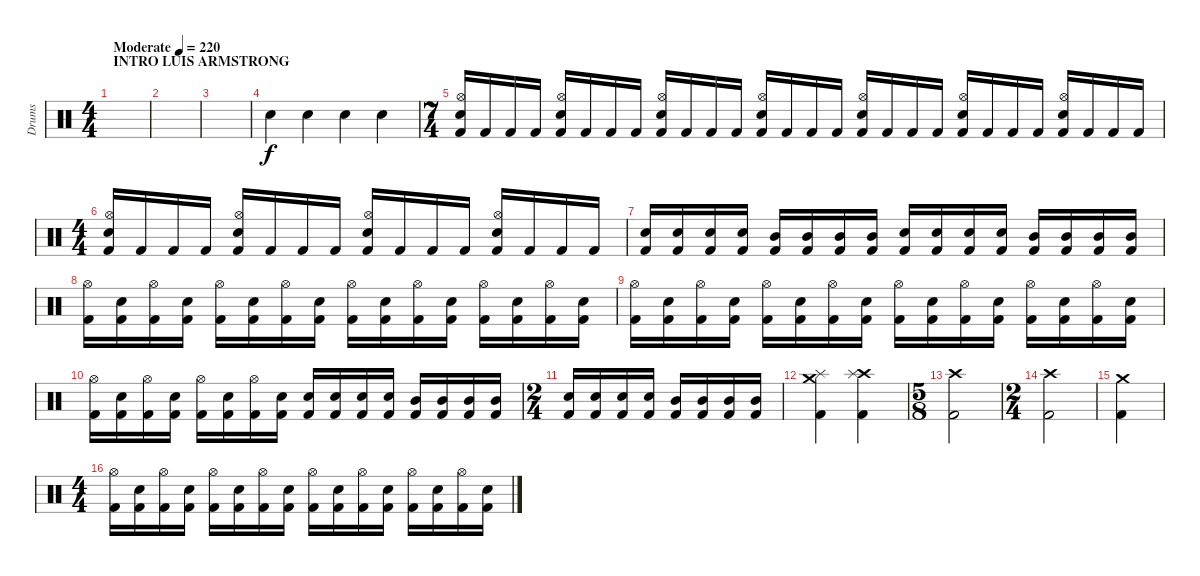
\track ("Drums" "Drums") {instrument percussion}
\staff {score}
\articulation defaults
\ts (4 4)
\section ("" "INTRO LUIS ARMSTRONG")
\tempo (220 "Moderate")
\clef neutral
\ks c
|
|
|
"Electric Snare (hit)".4 "Electric Snare (hit)".4 "Electric Snare (hit)".4 "Electric Snare (hit)".4 |
\ts (7 4)
("Hi-Hat (open)" "Electric Snare (hit)" "Kick (hit) 2").16 "Kick (hit) 2".16 "Kick (hit) 2".16 "Kick (hit) 2".16 ("Hi-Hat (open)" "Electric Snare (hit)" "Kick (hit) 2").16 "Kick (hit) 2".16 "Kick (hit) 2".16 "Kick (hit) 2".16 ("Hi-Hat (open)" "Electric Snare (hit)" "Kick (hit) 2").16 "Kick (hit) 2".16 "Kick (hit) 2".16 "Kick (hit) 2".16 ("Hi-Hat (open)" "Electric Snare (hit)" "Kick (hit) 2").16 "Kick (hit) 2".16 "Kick (hit) 2".16 "Kick (hit) 2".16 ("Hi-Hat (open)" "Electric Snare (hit)" "Kick (hit) 2").16 "Kick (hit) 2".16 "Kick (hit) 2".16 "Kick (hit) 2".16 ("Hi-Hat (open)" "Electric Snare (hit)" "Kick (hit) 2").16 "Kick (hit) 2".16 "Kick (hit) 2".16 "Kick (hit) 2".16 ("Hi-Hat (open)" "Electric Snare (hit)" "Kick (hit) 2").16 "Kick (hit) 2".16 "Kick (hit) 2".16 "Kick (hit) 2".16 |
\ts (4 4)
("Hi-Hat (open)" "Electric Snare (hit)" "Kick (hit) 2").16 "Kick (hit) 2".16 "Kick (hit) 2".16 "Kick (hit) 2".16 ("Hi-Hat (open)" "Electric Snare (hit)" "Kick (hit) 2").16 "Kick (hit) 2".16 "Kick (hit) 2".16 "Kick (hit) 2".16 ("Hi-Hat (open)" "Electric Snare (hit)" "Kick (hit) 2").16 "Kick (hit) 2".16 "Kick (hit) 2".16 "Kick (hit) 2".16 ("Hi-Hat (open)" "Electric Snare (hit)" "Kick (hit) 2").16 "Kick (hit) 2".16 "Kick (hit) 2".16 "Kick (hit) 2".16 |
("Electric Snare (hit)" "Kick (hit) 2").16 ("Electric Snare (hit)" "Kick (hit) 2").16 ("Electric Snare (hit)" "Kick (hit) 2").16 ("Electric Snare (hit)" "Kick (hit) 2").16 ("Mid Tom (hit)" "Kick (hit) 2").16 ("Mid Tom (hit)" "Kick (hit) 2").16 ("Mid Tom (hit)" "Kick (hit) 2").16 ("Mid Tom (hit)" "Kick (hit) 2").16 ("Electric Snare (hit)" "Kick (hit) 2").16 ("Electric Snare (hit)" "Kick (hit) 2").16 ("Electric Snare (hit)" "Kick (hit) 2").16 ("Electric Snare (hit)" "Kick (hit) 2").16 ("Mid Tom (hit)" "Kick (hit) 2").16 ("Mid Tom (hit)" "Kick (hit) 2").16 ("Mid Tom (hit)" "Kick (hit) 2").16 ("Mid Tom (hit)" "Kick (hit) 2").16 |
("Hi-Hat (open)" "Kick (hit) 2").16 ("Electric Snare (hit)" "Kick (hit) 2").16 ("Hi-Hat (open)" "Kick (hit) 2").16 ("Electric Snare (hit)" "Kick (hit) 2").16 ("Hi-Hat (open)" "Kick (hit) 2").16 ("Electric Snare (hit)" "Kick (hit) 2").16 ("Hi-Hat (open)" "Kick (hit) 2").16 ("Electric Snare (hit)" "Kick (hit) 2").16 ("Hi-Hat (open)" "Kick (hit) 2").16 ("Electric Snare (hit)" "Kick (hit) 2").16 ("Hi-Hat (open)" "Kick (hit) 2").16 ("Electric Snare (hit)" "Kick (hit) 2").16 ("Hi-Hat (open)" "Kick (hit) 2").16 ("Electric Snare (hit)" "Kick (hit) 2").16 ("Hi-Hat (open)" "Kick (hit) 2").16 ("Electric Snare (hit)" "Kick (hit) 2").16 |
("Hi-Hat (open)" "Kick (hit) 2").16 ("Electric Snare (hit)" "Kick (hit) 2").16 ("Hi-Hat (open)" "Kick (hit) 2").16 ("Electric Snare (hit)" "Kick (hit) 2").16 ("Hi-Hat (open)" "Kick (hit) 2").16 ("Electric Snare (hit)" "Kick (hit) 2").16 ("Hi-Hat (open)" "Kick (hit) 2").16 ("Electric Snare (hit)" "Kick (hit) 2").16 ("Hi-Hat (open)" "Kick (hit) 2").16 ("Electric Snare (hit)" "Kick (hit) 2").16 ("Hi-Hat (open)" "Kick (hit) 2").16 ("Electric Snare (hit)" "Kick (hit) 2").16 ("Hi-Hat (open)" "Kick (hit) 2").16 ("Electric Snare (hit)" "Kick (hit) 2").16 ("Hi-Hat (open)" "Kick (hit) 2").16 ("Electric Snare (hit)" "Kick (hit) 2").16 |
("Hi-Hat (open)" "Kick (hit) 2").16 ("Electric Snare (hit)" "Kick (hit) 2").16 ("Hi-Hat (open)" "Kick (hit) 2").16 ("Electric Snare (hit)" "Kick (hit) 2").16 ("Hi-Hat (open)" "Kick (hit) 2").16 ("Electric Snare (hit)" "Kick (hit) 2").16 ("Hi-Hat (open)" "Kick (hit) 2").16 ("Electric Snare (hit)" "Kick (hit) 2").16 ("Kick (hit) 2" "Electric Snare (hit)").16 ("Kick (hit) 2" "Electric Snare (hit)").16 ("Kick (hit) 2" "Electric Snare (hit)").16 ("Kick (hit) 2" "Electric Snare (hit)").16 ("Kick (hit) 2" "Mid Tom (hit)").16 ("Kick (hit) 2" "Mid Tom (hit)").16 ("Kick (hit) 2" "Mid Tom (hit)").16 ("Kick (hit) 2" "Mid Tom (hit)").16 |
\ts (2 4)
("Kick (hit) 2" "Electric Snare (hit)").16 ("Kick (hit) 2" "Electric Snare (hit)").16 ("Kick (hit) 2" "Electric Snare (hit)").16 ("Kick (hit) 2" "Electric Snare (hit)").16 ("Kick (hit) 2" "Mid Tom (hit)").16 ("Kick (hit) 2" "Mid Tom (hit)").16 ("Kick (hit) 2" "Mid Tom (hit)").16 ("Kick (hit) 2" "Mid Tom (hit)").16 |
("Crash medium (hit)" "Splash (hit)" "Kick (hit) 2").4 ("Crash high (hit)" "Splash (hit)" "Kick (hit) 2").4 |
\ts (5 8)
("Crash high (hit)" "Kick (hit) 2").2 |
\ts (2 4)
("Crash high (hit)" "Kick (hit) 2").2 |
("Crash medium (hit)" "Kick (hit) 2").4 |
\ts (4 4)
("Hi-Hat (open)" "Kick (hit) 2").16 ("Electric Snare (hit)" "Kick (hit) 2").16 ("Hi-Hat (open)" "Kick (hit) 2").16 ("Electric Snare (hit)" "Kick (hit) 2").16 ("Hi-Hat (open)" "Kick (hit) 2").16 ("Electric Snare (hit)" "Kick (hit) 2").16 ("Hi-Hat (open)" "Kick (hit) 2").16 ("Electric Snare (hit)" "Kick (hit) 2").16 ("Hi-Hat (open)" "Kick (hit) 2").16 ("Electric Snare (hit)" "Kick (hit) 2").16 ("Hi-Hat (open)" "Kick (hit) 2").16 ("Electric Snare (hit)" "Kick (hit) 2").16 ("Hi-Hat (open)" "Kick (hit) 2").16 ("Electric Snare (hit)" "Kick (hit) 2").16 ("Hi-Hat (open)" "Kick (hit) 2").16 ("Electric Snare (hit)" "Kick (hit) 2").16
